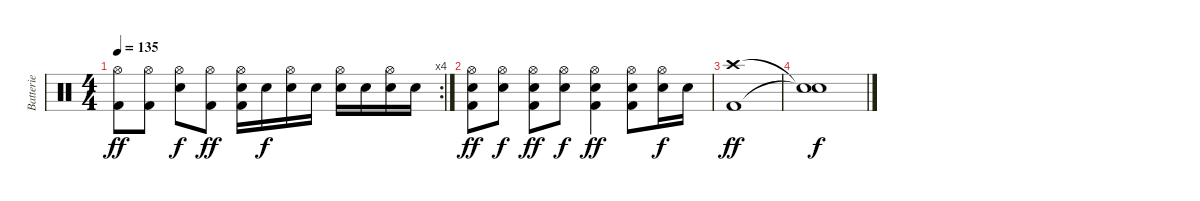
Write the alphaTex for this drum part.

\track ("Batterie" "Batterie") {instrument percussion}
\staff {score}
\articulation defaults
\rc 4
\ts (4 4)
\tempo 135
\clef neutral
\ks c
("Hi-Hat (open)" "Kick (hit) 2").8{dy ff} ("Hi-Hat (open)" "Kick (hit) 2").8 ("Hi-Hat (open)" "Snare (hit) 2").8{dy f} ("Hi-Hat (open)" "Kick (hit) 2").8{dy ff} ("Hi-Hat (open)" "Kick (hit) 2" "Snare (hit) 2").16 "Snare (hit) 2".16{dy f} ("Hi-Hat (open)" "Snare (hit) 2").16 "Snare (hit) 2".16 ("Hi-Hat (open)" "Snare (hit) 2").16 "Snare (hit) 2".16 ("Hi-Hat (open)" "Snare (hit) 2").16 "Snare (hit) 2".16 |
("Hi-Hat (open)" "Kick (hit) 2" "Snare (hit) 2").8{dy ff} ("Hi-Hat (open)" "Snare (hit) 2").8{dy f} ("Hi-Hat (open)" "Kick (hit) 2" "Snare (hit) 2").8{dy ff} ("Hi-Hat (open)" "Snare (hit) 2").8{dy f} ("Hi-Hat (open)" "Kick (hit) 2" "Snare (hit) 2").4{dy ff} ("Hi-Hat (open)" "Kick (hit) 2" "Snare (hit) 2").8 ("Hi-Hat (open)" "Snare (hit) 2").16{dy f} "Snare (hit) 2".16 |
("Crash high (hit)" "Kick (hit) 2").1{dy ff} |
("Snare (hit)"{t} "Snare (hit)"{t}).1{dy f}
